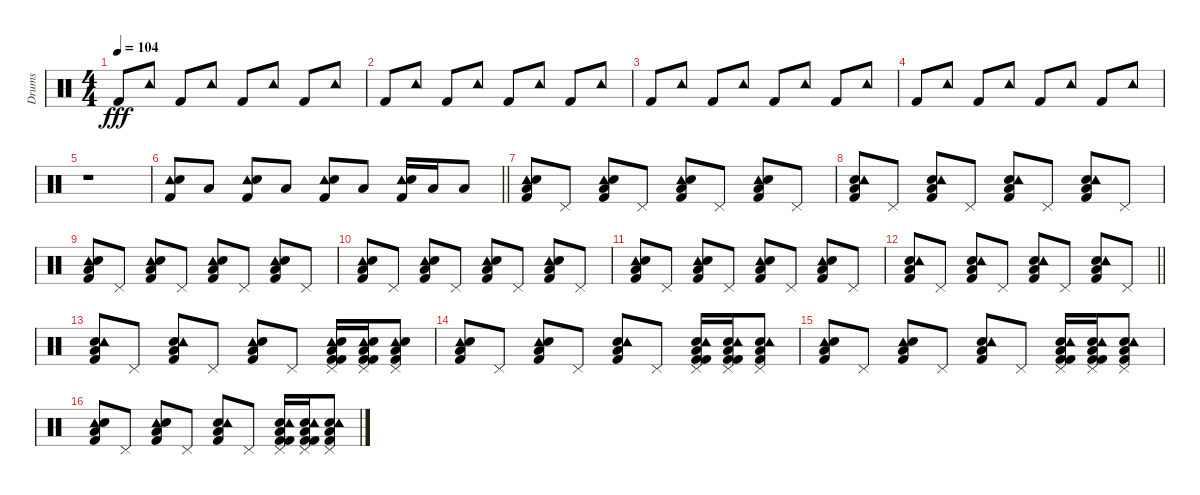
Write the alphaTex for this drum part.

\track ("Drums" "Drums") {instrument percussion}
\staff {score}
\articulation defaults
\ts (4 4)
\tempo 104
\clef neutral
\ks c "Kick (hit) 2".8{dy fff} "Tambourine (hit)".8 "Kick (hit) 2".8 "Tambourine (hit)".8 "Kick (hit) 2".8 "Tambourine (hit)".8 "Kick (hit) 2".8 "Tambourine (hit)".8
|
"Kick (hit) 2".8 "Tambourine (hit)".8 "Kick (hit) 2".8 "Tambourine (hit)".8 "Kick (hit) 2".8 "Tambourine (hit)".8 "Kick (hit) 2".8 "Tambourine (hit)".8 |
"Kick (hit) 2".8 "Tambourine (hit)".8 "Kick (hit) 2".8 "Tambourine (hit)".8 "Kick (hit) 2".8 "Tambourine (hit)".8 "Kick (hit) 2".8 "Tambourine (hit)".8 |
"Kick (hit) 2".8 "Tambourine (hit)".8 "Kick (hit) 2".8 "Tambourine (hit)".8 "Kick (hit) 2".8 "Tambourine (hit)".8 "Kick (hit) 2".8 "Tambourine (hit)".8 |
r.1 |
\barLineRight lightlight
("Tambourine (hit)" "Kick (hit) 2" "Snare (hit) 2").8 "Low Floor Tom (hit)".8 ("Tambourine (hit)" "Kick (hit) 2" "Snare (hit) 2").8 "Low Floor Tom (hit)".8 ("Tambourine (hit)" "Kick (hit) 2" "Snare (hit) 2").8 "Low Floor Tom (hit)".8 ("Tambourine (hit)" "Kick (hit) 2" "Snare (hit) 2").16 "Low Floor Tom (hit)".16 "Low Floor Tom (hit)".8 |
("Tambourine (hit)" "Low Floor Tom (hit)" "Kick (hit) 2" "Snare (hit) 2").8 "Pedal Hi-Hat (hit)".8 ("Tambourine (hit)" "Low Floor Tom (hit)" "Snare (hit) 2" "Kick (hit) 2").8 "Pedal Hi-Hat (hit)".8 ("Tambourine (hit)" "Low Floor Tom (hit)" "Snare (hit) 2" "Kick (hit) 2").8 "Pedal Hi-Hat (hit)".8 ("Tambourine (hit)" "Low Floor Tom (hit)" "Snare (hit) 2" "Kick (hit) 2").8 "Pedal Hi-Hat (hit)".8 |
("Snare (hit) 2" "Kick (hit) 2" "Low Floor Tom (hit)" "Tambourine (hit)").8 "Pedal Hi-Hat (hit)".8 ("Kick (hit) 2" "Snare (hit) 2" "Low Floor Tom (hit)" "Tambourine (hit)").8 "Pedal Hi-Hat (hit)".8 ("Kick (hit) 2" "Snare (hit) 2" "Low Floor Tom (hit)" "Tambourine (hit)").8 "Pedal Hi-Hat (hit)".8 ("Kick (hit) 2" "Snare (hit) 2" "Low Floor Tom (hit)" "Tambourine (hit)").8 "Pedal Hi-Hat (hit)".8 |
("Tambourine (hit)" "Low Floor Tom (hit)" "Kick (hit) 2" "Snare (hit) 2").8 "Pedal Hi-Hat (hit)".8 ("Tambourine (hit)" "Low Floor Tom (hit)" "Snare (hit) 2" "Kick (hit) 2").8 "Pedal Hi-Hat (hit)".8 ("Tambourine (hit)" "Low Floor Tom (hit)" "Snare (hit) 2" "Kick (hit) 2").8 "Pedal Hi-Hat (hit)".8 ("Tambourine (hit)" "Low Floor Tom (hit)" "Snare (hit) 2" "Kick (hit) 2").8 "Pedal Hi-Hat (hit)".8 |
("Tambourine (hit)" "Low Floor Tom (hit)" "Kick (hit) 2" "Snare (hit) 2").8 "Pedal Hi-Hat (hit)".8 ("Tambourine (hit)" "Low Floor Tom (hit)" "Snare (hit) 2" "Kick (hit) 2").8 "Pedal Hi-Hat (hit)".8 ("Tambourine (hit)" "Low Floor Tom (hit)" "Snare (hit) 2" "Kick (hit) 2").8 "Pedal Hi-Hat (hit)".8 ("Tambourine (hit)" "Low Floor Tom (hit)" "Snare (hit) 2" "Kick (hit) 2").8 "Pedal Hi-Hat (hit)".8 |
("Tambourine (hit)" "Low Floor Tom (hit)" "Kick (hit) 2" "Snare (hit) 2").8 "Pedal Hi-Hat (hit)".8 ("Tambourine (hit)" "Low Floor Tom (hit)" "Snare (hit) 2" "Kick (hit) 2").8 "Pedal Hi-Hat (hit)".8 ("Tambourine (hit)" "Low Floor Tom (hit)" "Snare (hit) 2" "Kick (hit) 2").8 "Pedal Hi-Hat (hit)".8 ("Tambourine (hit)" "Low Floor Tom (hit)" "Snare (hit) 2" "Kick (hit) 2").8 "Pedal Hi-Hat (hit)".8 |
\barLineRight lightlight
("Snare (hit) 2" "Kick (hit) 2" "Low Floor Tom (hit)" "Tambourine (hit)").8 "Pedal Hi-Hat (hit)".8 ("Snare (hit) 2" "Low Floor Tom (hit)" "Tambourine (hit)" "Kick (hit) 2").8 "Pedal Hi-Hat (hit)".8 ("Kick (hit) 2" "Snare (hit) 2" "Low Floor Tom (hit)" "Tambourine (hit)").8 "Pedal Hi-Hat (hit)".8 ("Kick (hit) 2" "Snare (hit) 2" "Low Floor Tom (hit)" "Tambourine (hit)").8 "Pedal Hi-Hat (hit)".8 |
("Low Floor Tom (hit)" "Kick (hit) 2" "Snare (hit) 2" "Tambourine (hit)").8 "Pedal Hi-Hat (hit)".8 ("Snare (hit) 2" "Low Floor Tom (hit)" "Kick (hit) 2" "Tambourine (hit)").8 "Pedal Hi-Hat (hit)".8 ("Tambourine (hit)" "Snare (hit) 2" "Kick (hit) 2" "Low Floor Tom (hit)").8 "Pedal Hi-Hat (hit)".8 ("Tambourine (hit)" "Pedal Hi-Hat (hit)" "Low Floor Tom (hit)" "Snare (hit) 2" "Kick (hit) 2" "Kick (hit) 2").16 ("Tambourine (hit)" "Kick (hit) 2" "Kick (hit) 2" "Snare (hit) 2" "Low Floor Tom (hit)" "Pedal Hi-Hat (hit)").16 ("Tambourine (hit)" "Snare (hit) 2" "Kick (hit) 2" "Low Floor Tom (hit)" "Pedal Hi-Hat (hit)").8 |
("Tambourine (hit)" "Snare (hit) 2" "Kick (hit) 2" "Low Floor Tom (hit)").8 "Pedal Hi-Hat (hit)".8 ("Tambourine (hit)" "Kick (hit) 2" "Low Floor Tom (hit)" "Snare (hit) 2").8 "Pedal Hi-Hat (hit)".8 ("Low Floor Tom (hit)" "Kick (hit) 2" "Snare (hit) 2" "Tambourine (hit)").8 "Pedal Hi-Hat (hit)".8 ("Kick (hit) 2" "Kick (hit) 2" "Snare (hit) 2" "Low Floor Tom (hit)" "Pedal Hi-Hat (hit)" "Tambourine (hit)").16 ("Pedal Hi-Hat (hit)" "Low Floor Tom (hit)" "Snare (hit) 2" "Kick (hit) 2" "Kick (hit) 2" "Tambourine (hit)").16 ("Pedal Hi-Hat (hit)" "Low Floor Tom (hit)" "Kick (hit) 2" "Snare (hit) 2" "Tambourine (hit)").8 |
("Tambourine (hit)" "Snare (hit) 2" "Kick (hit) 2" "Low Floor Tom (hit)").8 "Pedal Hi-Hat (hit)".8 ("Tambourine (hit)" "Kick (hit) 2" "Low Floor Tom (hit)" "Snare (hit) 2").8 "Pedal Hi-Hat (hit)".8 ("Low Floor Tom (hit)" "Kick (hit) 2" "Snare (hit) 2" "Tambourine (hit)").8 "Pedal Hi-Hat (hit)".8 ("Kick (hit) 2" "Kick (hit) 2" "Snare (hit) 2" "Low Floor Tom (hit)" "Pedal Hi-Hat (hit)" "Tambourine (hit)").16 ("Pedal Hi-Hat (hit)" "Low Floor Tom (hit)" "Snare (hit) 2" "Kick (hit) 2" "Kick (hit) 2" "Tambourine (hit)").16 ("Pedal Hi-Hat (hit)" "Low Floor Tom (hit)" "Kick (hit) 2" "Snare (hit) 2" "Tambourine (hit)").8 |
("Tambourine (hit)" "Snare (hit) 2" "Kick (hit) 2" "Low Floor Tom (hit)").8 "Pedal Hi-Hat (hit)".8 ("Tambourine (hit)" "Kick (hit) 2" "Low Floor Tom (hit)" "Snare (hit) 2").8 "Pedal Hi-Hat (hit)".8 ("Low Floor Tom (hit)" "Kick (hit) 2" "Snare (hit) 2" "Tambourine (hit)").8 "Pedal Hi-Hat (hit)".8 ("Kick (hit) 2" "Kick (hit) 2" "Snare (hit) 2" "Low Floor Tom (hit)" "Pedal Hi-Hat (hit)" "Tambourine (hit)").16 ("Pedal Hi-Hat (hit)" "Low Floor Tom (hit)" "Snare (hit) 2" "Kick (hit) 2" "Kick (hit) 2" "Tambourine (hit)").16 ("Pedal Hi-Hat (hit)" "Low Floor Tom (hit)" "Kick (hit) 2" "Snare (hit) 2" "Tambourine (hit)").8
